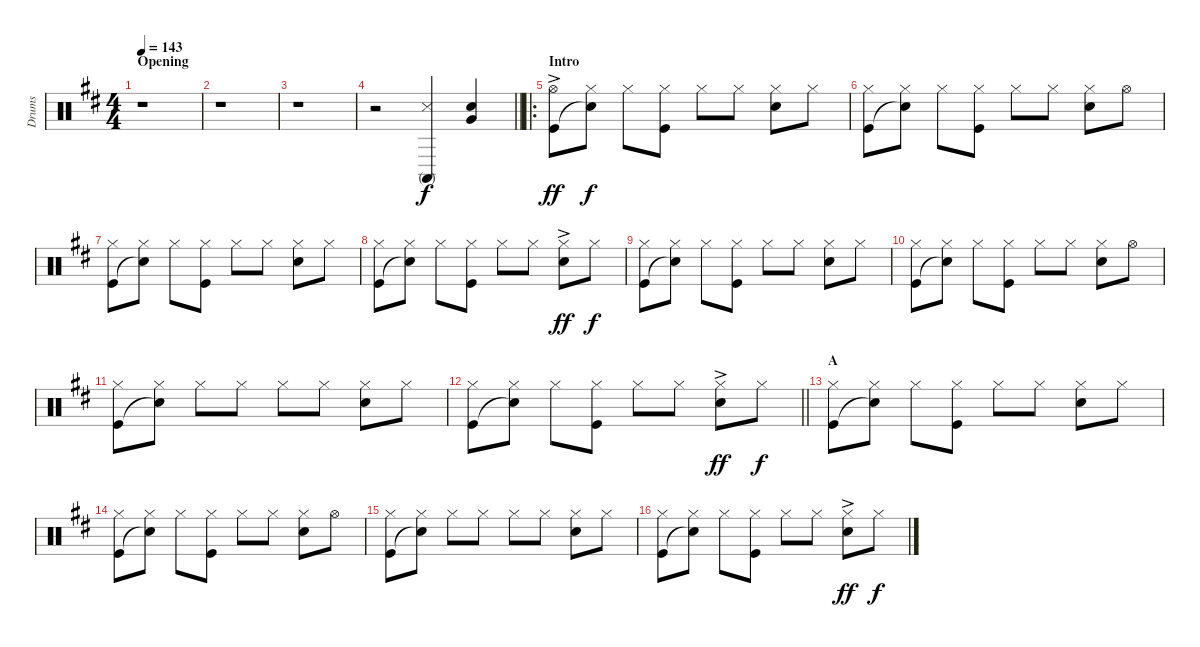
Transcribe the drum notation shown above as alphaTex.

\track ("Drums" "Drums") {instrument percussion}
\staff {score}
\articulation defaults
\ts (4 4)
\section ("" "Opening")
\tempo 143
\clef neutral
\ks d
r.1{dy f} |
r.1 |
r.1 |
\barLineRight lightlight
r.2 ("Snare (side stick) 3" "Conga high (mute)").4 ("Snare (hit) 2" "Very Low Tom (hit)").4 |
\ro
\section ("" "Intro")
("Hi-Hat (open)"{ac} "Kick (hit)").8{dy ff} ("Hi-Hat (closed)" "Snare (hit)"{t}).8{dy f} "Hi-Hat (closed)".8 ("Hi-Hat (closed)" "Kick (hit)").8 "Hi-Hat (closed)".8 "Hi-Hat (closed)".8 ("Hi-Hat (closed)" "Snare (hit) 2").8 "Hi-Hat (closed)".8 |
("Hi-Hat (closed)" "Kick (hit)").8 ("Hi-Hat (closed)" "Snare (hit)"{t}).8 "Hi-Hat (closed)".8 ("Hi-Hat (closed)" "Kick (hit)").8 "Hi-Hat (closed)".8 "Hi-Hat (closed)".8 ("Hi-Hat (closed)" "Snare (hit) 2").8 "Hi-Hat (open)".8 |
("Hi-Hat (closed)" "Kick (hit)").8 ("Hi-Hat (closed)" "Snare (hit)"{t}).8 "Hi-Hat (closed)".8 ("Hi-Hat (closed)" "Kick (hit)").8 "Hi-Hat (closed)".8 "Hi-Hat (closed)".8 ("Hi-Hat (closed)" "Snare (hit) 2").8 "Hi-Hat (closed)".8 |
("Hi-Hat (closed)" "Kick (hit)").8 ("Hi-Hat (closed)" "Snare (hit)"{t}).8 "Hi-Hat (closed)".8 ("Hi-Hat (closed)" "Kick (hit)").8 "Hi-Hat (closed)".8 "Hi-Hat (closed)".8 ("Hi-Hat (closed)"{ac} "Snare (hit) 2"{ac}).8{dy ff} "Hi-Hat (closed)".8{dy f} |
("Hi-Hat (closed)" "Kick (hit)").8 ("Hi-Hat (closed)" "Snare (hit)"{t}).8 "Hi-Hat (closed)".8 ("Hi-Hat (closed)" "Kick (hit)").8 "Hi-Hat (closed)".8 "Hi-Hat (closed)".8 ("Hi-Hat (closed)" "Snare (hit) 2").8 "Hi-Hat (closed)".8 |
("Hi-Hat (closed)" "Kick (hit)").8 ("Hi-Hat (closed)" "Snare (hit)"{t}).8 "Hi-Hat (closed)".8 ("Hi-Hat (closed)" "Kick (hit)").8 "Hi-Hat (closed)".8 "Hi-Hat (closed)".8 ("Hi-Hat (closed)" "Snare (hit) 2").8 "Hi-Hat (open)".8 |
("Hi-Hat (closed)" "Kick (hit)").8 ("Hi-Hat (closed)" "Snare (hit)"{t}).8 "Hi-Hat (closed)".8 "Hi-Hat (closed)".8 "Hi-Hat (closed)".8 "Hi-Hat (closed)".8 ("Hi-Hat (closed)" "Snare (hit) 2").8 "Hi-Hat (closed)".8 |
\barLineRight lightlight
("Hi-Hat (closed)" "Kick (hit)").8 ("Hi-Hat (closed)" "Snare (hit)"{t}).8 "Hi-Hat (closed)".8 ("Hi-Hat (closed)" "Kick (hit)").8 "Hi-Hat (closed)".8 "Hi-Hat (closed)".8 ("Hi-Hat (closed)"{ac} "Snare (hit) 2"{ac}).8{dy ff} "Hi-Hat (closed)".8{dy f} |
\section ("" "A")
("Hi-Hat (closed)" "Kick (hit)").8 ("Hi-Hat (closed)" "Snare (hit)"{t}).8 "Hi-Hat (closed)".8 ("Hi-Hat (closed)" "Kick (hit)").8 "Hi-Hat (closed)".8 "Hi-Hat (closed)".8 ("Hi-Hat (closed)" "Snare (hit) 2").8 "Hi-Hat (closed)".8 |
("Hi-Hat (closed)" "Kick (hit)").8 ("Hi-Hat (closed)" "Snare (hit)"{t}).8 "Hi-Hat (closed)".8 ("Hi-Hat (closed)" "Kick (hit)").8 "Hi-Hat (closed)".8 "Hi-Hat (closed)".8 ("Hi-Hat (closed)" "Snare (hit) 2").8 "Hi-Hat (open)".8 |
("Hi-Hat (closed)" "Kick (hit)").8 ("Hi-Hat (closed)" "Snare (hit)"{t}).8 "Hi-Hat (closed)".8 "Hi-Hat (closed)".8 "Hi-Hat (closed)".8 "Hi-Hat (closed)".8 ("Hi-Hat (closed)" "Snare (hit) 2").8 "Hi-Hat (closed)".8 |
("Hi-Hat (closed)" "Kick (hit)").8 ("Hi-Hat (closed)" "Snare (hit)"{t}).8 "Hi-Hat (closed)".8 ("Hi-Hat (closed)" "Kick (hit)").8 "Hi-Hat (closed)".8 "Hi-Hat (closed)".8 ("Hi-Hat (closed)"{ac} "Snare (hit) 2"{ac}).8{dy ff} "Hi-Hat (closed)".8{dy f}
